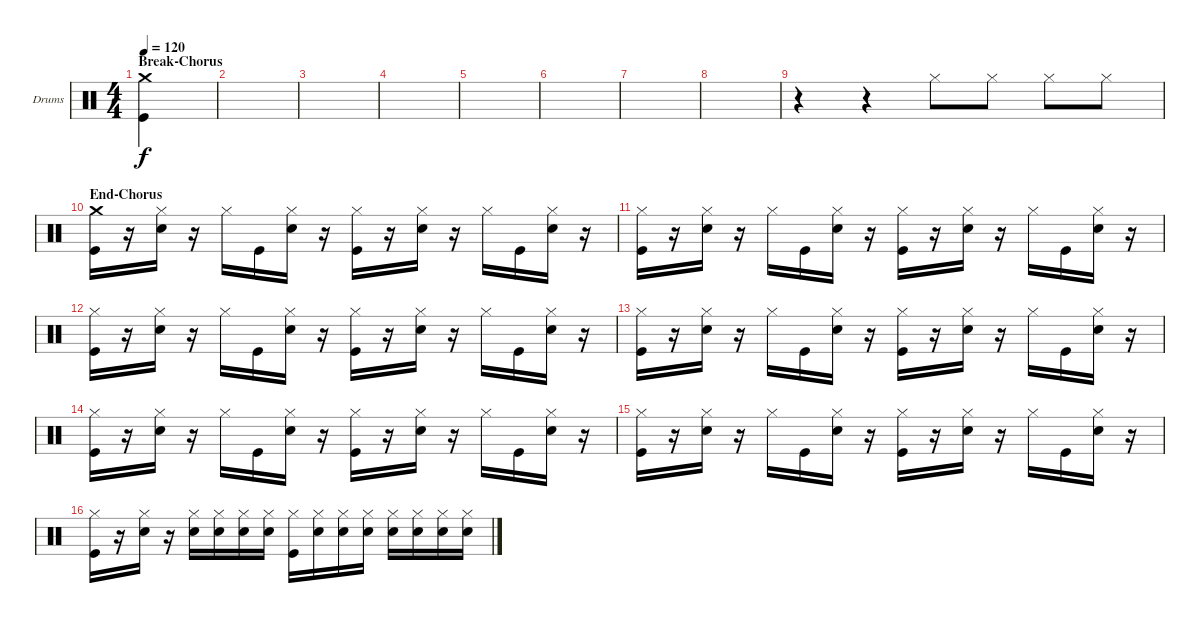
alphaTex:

\defaultSystemsLayout 4
\bracketExtendMode groupsimilarinstruments
\firstSystemTrackNameOrientation horizontal
\otherSystemsTrackNameOrientation horizontal
\track ("Jerinx" "Drums") {instrument percussion}
\staff {score}
\articulation defaults
\ts (4 4)
\section ("" "Break-Chorus")
\tempo 120
\clef neutral
\ks c
("Crash medium (hit)" "Kick (hit)").4{dy f} |
|
|
|
|
|
|
|
r.4 r.4 "Hi-Hat (closed)".8 "Hi-Hat (closed)".8 "Hi-Hat (closed)".8 "Hi-Hat (closed)".8 |
\section ("" "End-Chorus")
("Crash medium (hit)" "Kick (hit)").16 r.16 ("Snare (hit) 2" "Hi-Hat (closed)").16 r.16 "Hi-Hat (closed)".16 "Kick (hit)".16 ("Snare (hit) 2" "Hi-Hat (closed)").16 r.16 ("Kick (hit)" "Hi-Hat (closed)").16 r.16 ("Snare (hit) 2" "Hi-Hat (closed)").16 r.16 "Hi-Hat (closed)".16 "Kick (hit)".16 ("Snare (hit) 2" "Hi-Hat (closed)").16 r.16 |
("Kick (hit)" "Hi-Hat (closed)").16 r.16 ("Snare (hit) 2" "Hi-Hat (closed)").16 r.16 "Hi-Hat (closed)".16 "Kick (hit)".16 ("Snare (hit) 2" "Hi-Hat (closed)").16 r.16 ("Kick (hit)" "Hi-Hat (closed)").16 r.16 ("Snare (hit) 2" "Hi-Hat (closed)").16 r.16 "Hi-Hat (closed)".16 "Kick (hit)".16 ("Snare (hit) 2" "Hi-Hat (closed)").16 r.16 |
("Kick (hit)" "Hi-Hat (closed)").16 r.16 ("Snare (hit) 2" "Hi-Hat (closed)").16 r.16 "Hi-Hat (closed)".16 "Kick (hit)".16 ("Snare (hit) 2" "Hi-Hat (closed)").16 r.16 ("Kick (hit)" "Hi-Hat (closed)").16 r.16 ("Snare (hit) 2" "Hi-Hat (closed)").16 r.16 "Hi-Hat (closed)".16 "Kick (hit)".16 ("Snare (hit) 2" "Hi-Hat (closed)").16 r.16 |
("Kick (hit)" "Hi-Hat (closed)").16 r.16 ("Snare (hit) 2" "Hi-Hat (closed)").16 r.16 "Hi-Hat (closed)".16 "Kick (hit)".16 ("Snare (hit) 2" "Hi-Hat (closed)").16 r.16 ("Kick (hit)" "Hi-Hat (closed)").16 r.16 ("Snare (hit) 2" "Hi-Hat (closed)").16 r.16 "Hi-Hat (closed)".16 "Kick (hit)".16 ("Snare (hit) 2" "Hi-Hat (closed)").16 r.16 |
("Kick (hit)" "Hi-Hat (closed)").16 r.16 ("Snare (hit) 2" "Hi-Hat (closed)").16 r.16 "Hi-Hat (closed)".16 "Kick (hit)".16 ("Snare (hit) 2" "Hi-Hat (closed)").16 r.16 ("Kick (hit)" "Hi-Hat (closed)").16 r.16 ("Snare (hit) 2" "Hi-Hat (closed)").16 r.16 "Hi-Hat (closed)".16 "Kick (hit)".16 ("Snare (hit) 2" "Hi-Hat (closed)").16 r.16 |
("Kick (hit)" "Hi-Hat (closed)").16 r.16 ("Snare (hit) 2" "Hi-Hat (closed)").16 r.16 "Hi-Hat (closed)".16 "Kick (hit)".16 ("Snare (hit) 2" "Hi-Hat (closed)").16 r.16 ("Kick (hit)" "Hi-Hat (closed)").16 r.16 ("Snare (hit) 2" "Hi-Hat (closed)").16 r.16 "Hi-Hat (closed)".16 "Kick (hit)".16 ("Snare (hit) 2" "Hi-Hat (closed)").16 r.16 |
("Kick (hit)" "Hi-Hat (closed)").16 r.16 ("Snare (hit) 2" "Hi-Hat (closed)").16 r.16 ("Snare (hit) 2" "Hi-Hat (closed)").16 ("Snare (hit) 2" "Hi-Hat (closed)").16 ("Snare (hit) 2" "Hi-Hat (closed)").16 ("Snare (hit) 2" "Hi-Hat (closed)").16 ("Kick (hit)" "Hi-Hat (closed)").16 ("Snare (hit) 2" "Hi-Hat (closed)").16 ("Snare (hit) 2" "Hi-Hat (closed)").16 ("Snare (hit) 2" "Hi-Hat (closed)").16 ("Snare (hit) 2" "Hi-Hat (closed)").16 ("Snare (hit) 2" "Hi-Hat (closed)").16 ("Snare (hit) 2" "Hi-Hat (closed)").16 ("Snare (hit) 2" "Hi-Hat (closed)").16
